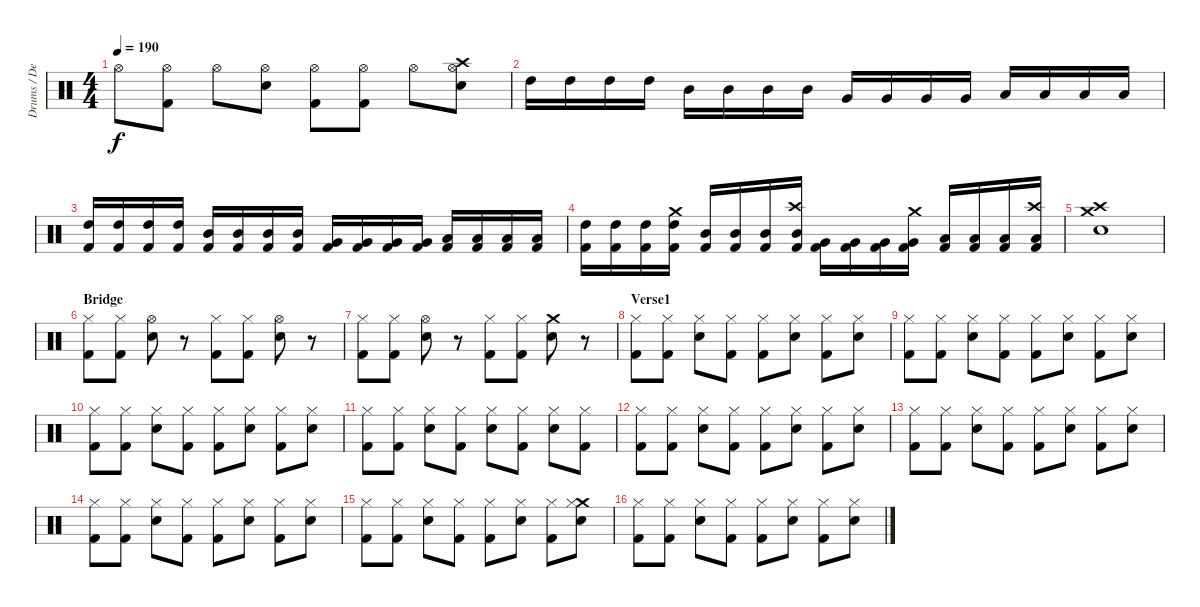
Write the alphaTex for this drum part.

\track ("Drums / Dennis" "Drums / De") {instrument percussion}
\staff {score}
\articulation defaults
\ts (4 4)
\tempo 190
\clef neutral
\ks c "Hi-Hat (open)".8{dy f}
("Kick (hit) 2" "Hi-Hat (open)").8 "Hi-Hat (open)".8 ("Snare (hit) 2" "Hi-Hat (open)").8 ("Kick (hit) 2" "Hi-Hat (open)").8 ("Kick (hit) 2" "Hi-Hat (open)").8 "Hi-Hat (open)".8 ("Crash high (hit)" "Snare (hit) 2" "Hi-Hat (open)").8 |
"High Tom (hit)".16 "High Tom (hit)".16 "High Tom (hit)".16 "High Tom (hit)".16 "Mid Tom (hit)".16 "Mid Tom (hit)".16 "Mid Tom (hit)".16 "Mid Tom (hit)".16 "Very Low Tom (hit)".16 "Very Low Tom (hit)".16 "Very Low Tom (hit)".16 "Very Low Tom (hit)".16 "Low Floor Tom (hit)".16 "Low Floor Tom (hit)".16 "Low Floor Tom (hit)".16 "Low Floor Tom (hit)".16 |
("High Tom (hit)" "Kick (hit) 2").16 ("High Tom (hit)" "Kick (hit) 2").16 ("High Tom (hit)" "Kick (hit) 2").16 ("High Tom (hit)" "Kick (hit) 2").16 ("Mid Tom (hit)" "Kick (hit) 2").16 ("Mid Tom (hit)" "Kick (hit) 2").16 ("Mid Tom (hit)" "Kick (hit) 2").16 ("Mid Tom (hit)" "Kick (hit) 2").16 ("Very Low Tom (hit)" "Kick (hit) 2").16 ("Very Low Tom (hit)" "Kick (hit) 2").16 ("Very Low Tom (hit)" "Kick (hit) 2").16 ("Very Low Tom (hit)" "Kick (hit) 2").16 ("Low Floor Tom (hit)" "Kick (hit) 2").16 ("Low Floor Tom (hit)" "Kick (hit) 2").16 ("Low Floor Tom (hit)" "Kick (hit) 2").16 ("Low Floor Tom (hit)" "Kick (hit) 2").16 |
("High Tom (hit)" "Kick (hit) 2").16 ("High Tom (hit)" "Kick (hit) 2").16 ("High Tom (hit)" "Kick (hit) 2").16 ("Crash medium (hit)" "High Tom (hit)" "Kick (hit) 2").16 ("Mid Tom (hit)" "Kick (hit) 2").16 ("Mid Tom (hit)" "Kick (hit) 2").16 ("Mid Tom (hit)" "Kick (hit) 2").16 ("Crash high (hit)" "Mid Tom (hit)" "Kick (hit) 2").16 ("Very Low Tom (hit)" "Kick (hit) 2").16 ("Very Low Tom (hit)" "Kick (hit) 2").16 ("Very Low Tom (hit)" "Kick (hit) 2").16 ("Crash medium (hit)" "Very Low Tom (hit)" "Kick (hit) 2").16 ("Low Floor Tom (hit)" "Kick (hit) 2").16 ("Low Floor Tom (hit)" "Kick (hit) 2").16 ("Low Floor Tom (hit)" "Kick (hit) 2").16 ("Crash high (hit)" "Low Floor Tom (hit)" "Kick (hit) 2").16 |
("Crash medium (hit)" "Crash high (hit)" "Snare (hit) 2").1 |
\section ("" "Bridge")
("Kick (hit) 2" "Hi-Hat (closed)").8 ("Kick (hit) 2" "Hi-Hat (closed)").8 ("Snare (hit) 2" "Hi-Hat (open)").8 r.8 ("Kick (hit) 2" "Hi-Hat (closed)").8 ("Kick (hit) 2" "Hi-Hat (closed)").8 ("Snare (hit) 2" "Hi-Hat (open)").8 r.8 |
("Kick (hit) 2" "Hi-Hat (closed)").8 ("Kick (hit) 2" "Hi-Hat (closed)").8 ("Snare (hit) 2" "Hi-Hat (open)").8 r.8 ("Kick (hit) 2" "Hi-Hat (closed)").8 ("Kick (hit) 2" "Hi-Hat (closed)").8 ("Crash medium (hit)" "Snare (hit) 2").8 r.8 |
\section ("" "Verse1")
("Kick (hit) 2" "Hi-Hat (closed)").8 ("Kick (hit) 2" "Hi-Hat (closed)").8 ("Snare (hit) 2" "Hi-Hat (closed)").8 ("Kick (hit) 2" "Hi-Hat (closed)").8 ("Kick (hit) 2" "Hi-Hat (closed)").8 ("Snare (hit) 2" "Hi-Hat (closed)").8 ("Kick (hit) 2" "Hi-Hat (closed)").8 ("Snare (hit) 2" "Hi-Hat (closed)").8 |
("Kick (hit) 2" "Hi-Hat (closed)").8 ("Kick (hit) 2" "Hi-Hat (closed)").8 ("Snare (hit) 2" "Hi-Hat (closed)").8 ("Kick (hit) 2" "Hi-Hat (closed)").8 ("Kick (hit) 2" "Hi-Hat (closed)").8 ("Snare (hit) 2" "Hi-Hat (closed)").8 ("Kick (hit) 2" "Hi-Hat (closed)").8 ("Snare (hit) 2" "Hi-Hat (closed)").8 |
("Kick (hit) 2" "Hi-Hat (closed)").8 ("Kick (hit) 2" "Hi-Hat (closed)").8 ("Snare (hit) 2" "Hi-Hat (closed)").8 ("Kick (hit) 2" "Hi-Hat (closed)").8 ("Kick (hit) 2" "Hi-Hat (closed)").8 ("Snare (hit) 2" "Hi-Hat (closed)").8 ("Kick (hit) 2" "Hi-Hat (closed)").8 ("Snare (hit) 2" "Hi-Hat (closed)").8 |
("Kick (hit) 2" "Hi-Hat (closed)").8 ("Kick (hit) 2" "Hi-Hat (closed)").8 ("Snare (hit) 2" "Hi-Hat (closed)").8 ("Kick (hit) 2" "Hi-Hat (closed)").8 ("Snare (hit) 2" "Hi-Hat (closed)").8 ("Kick (hit) 2" "Hi-Hat (closed)").8 ("Snare (hit) 2" "Hi-Hat (closed)").8 ("Kick (hit) 2" "Hi-Hat (closed)").8 |
("Kick (hit) 2" "Hi-Hat (closed)").8 ("Kick (hit) 2" "Hi-Hat (closed)").8 ("Snare (hit) 2" "Hi-Hat (closed)").8 ("Kick (hit) 2" "Hi-Hat (closed)").8 ("Kick (hit) 2" "Hi-Hat (closed)").8 ("Snare (hit) 2" "Hi-Hat (closed)").8 ("Kick (hit) 2" "Hi-Hat (closed)").8 ("Snare (hit) 2" "Hi-Hat (closed)").8 |
("Kick (hit) 2" "Hi-Hat (closed)").8 ("Kick (hit) 2" "Hi-Hat (closed)").8 ("Snare (hit) 2" "Hi-Hat (closed)").8 ("Kick (hit) 2" "Hi-Hat (closed)").8 ("Kick (hit) 2" "Hi-Hat (closed)").8 ("Snare (hit) 2" "Hi-Hat (closed)").8 ("Kick (hit) 2" "Hi-Hat (closed)").8 ("Snare (hit) 2" "Hi-Hat (closed)").8 |
("Kick (hit) 2" "Hi-Hat (closed)").8 ("Kick (hit) 2" "Hi-Hat (closed)").8 ("Snare (hit) 2" "Hi-Hat (closed)").8 ("Kick (hit) 2" "Hi-Hat (closed)").8 ("Kick (hit) 2" "Hi-Hat (closed)").8 ("Snare (hit) 2" "Hi-Hat (closed)").8 ("Kick (hit) 2" "Hi-Hat (closed)").8 ("Snare (hit) 2" "Hi-Hat (closed)").8 |
("Kick (hit) 2" "Hi-Hat (closed)").8 ("Kick (hit) 2" "Hi-Hat (closed)").8 ("Snare (hit) 2" "Hi-Hat (closed)").8 ("Kick (hit) 2" "Hi-Hat (closed)").8 ("Kick (hit) 2" "Hi-Hat (closed)").8 ("Snare (hit) 2" "Hi-Hat (closed)").8 ("Kick (hit) 2" "Hi-Hat (closed)").8 ("Crash medium (hit)" "Snare (hit) 2" "Hi-Hat (closed)").8 |
("Kick (hit) 2" "Hi-Hat (closed)").8 ("Kick (hit) 2" "Hi-Hat (closed)").8 ("Snare (hit) 2" "Hi-Hat (closed)").8 ("Kick (hit) 2" "Hi-Hat (closed)").8 ("Kick (hit) 2" "Hi-Hat (closed)").8 ("Snare (hit) 2" "Hi-Hat (closed)").8 ("Kick (hit) 2" "Hi-Hat (closed)").8 ("Snare (hit) 2" "Hi-Hat (closed)").8
